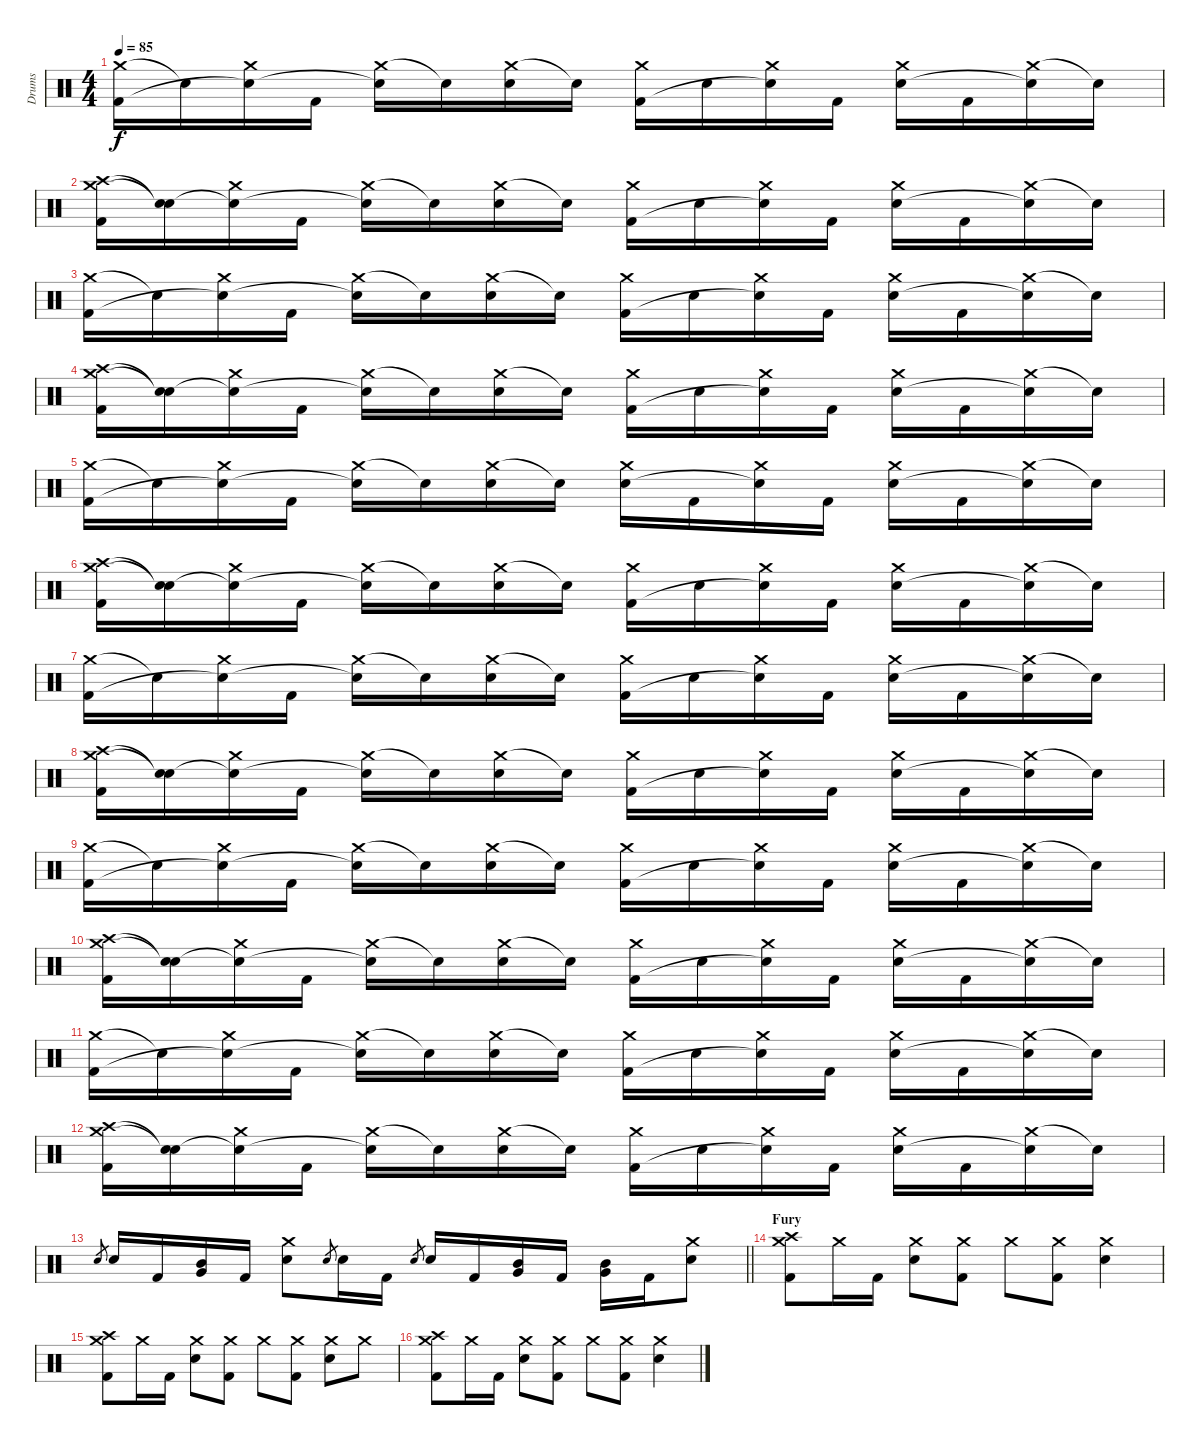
\track ("Drums" "Drums") {instrument percussion}
\staff {score}
\articulation defaults
\ts (4 4)
\tempo 85
\clef neutral
\ks c
("Crash medium (hit)" "Kick (hit) 2").16{dy f} "Snare (hit)"{t}.16 ("Crash medium (hit)" "Snare (hit)"{t}).16 "Kick (hit) 2".16 ("Crash medium (hit)" "Snare (hit)"{t}).16 "Snare (hit)"{t}.16 ("Crash medium (hit)" "Snare (hit) 2").16 "Snare (hit)"{t}.16 ("Crash medium (hit)" "Kick (hit) 2").16 "Snare (hit) 2".16 ("Crash medium (hit)" "Snare (hit)"{t}).16 "Kick (hit) 2".16 ("Crash medium (hit)" "Snare (hit) 2").16 "Kick (hit) 2".16 ("Crash medium (hit)" "Snare (hit)"{t}).16 "Snare (hit)"{t}.16 |
("Crash high (hit)" "Crash medium (hit)" "Kick (hit) 2").16 ("Snare (hit)"{t} "Snare (hit)"{t}).16 ("Crash medium (hit)" "Snare (hit)"{t}).16 "Kick (hit) 2".16 ("Crash medium (hit)" "Snare (hit)"{t}).16 "Snare (hit)"{t}.16 ("Crash medium (hit)" "Snare (hit) 2").16 "Snare (hit)"{t}.16 ("Crash medium (hit)" "Kick (hit) 2").16 "Snare (hit) 2".16 ("Crash medium (hit)" "Snare (hit)"{t}).16 "Kick (hit) 2".16 ("Crash medium (hit)" "Snare (hit) 2").16 "Kick (hit) 2".16 ("Crash medium (hit)" "Snare (hit)"{t}).16 "Snare (hit)"{t}.16 |
("Crash medium (hit)" "Kick (hit) 2").16 "Snare (hit)"{t}.16 ("Crash medium (hit)" "Snare (hit)"{t}).16 "Kick (hit) 2".16 ("Crash medium (hit)" "Snare (hit)"{t}).16 "Snare (hit)"{t}.16 ("Crash medium (hit)" "Snare (hit) 2").16 "Snare (hit)"{t}.16 ("Crash medium (hit)" "Kick (hit) 2").16 "Snare (hit) 2".16 ("Crash medium (hit)" "Snare (hit)"{t}).16 "Kick (hit) 2".16 ("Crash medium (hit)" "Snare (hit) 2").16 "Kick (hit) 2".16 ("Crash medium (hit)" "Snare (hit)"{t}).16 "Snare (hit)"{t}.16 |
("Crash high (hit)" "Crash medium (hit)" "Kick (hit) 2").16 ("Snare (hit)"{t} "Snare (hit)"{t}).16 ("Crash medium (hit)" "Snare (hit)"{t}).16 "Kick (hit) 2".16 ("Crash medium (hit)" "Snare (hit)"{t}).16 "Snare (hit)"{t}.16 ("Crash medium (hit)" "Snare (hit) 2").16 "Snare (hit)"{t}.16 ("Crash medium (hit)" "Kick (hit) 2").16 "Snare (hit) 2".16 ("Crash medium (hit)" "Snare (hit)"{t}).16 "Kick (hit) 2".16 ("Crash medium (hit)" "Snare (hit) 2").16 "Kick (hit) 2".16 ("Crash medium (hit)" "Snare (hit)"{t}).16 "Snare (hit)"{t}.16 |
("Crash medium (hit)" "Kick (hit) 2").16 "Snare (hit)"{t}.16 ("Crash medium (hit)" "Snare (hit)"{t}).16 "Kick (hit) 2".16 ("Crash medium (hit)" "Snare (hit)"{t}).16 "Snare (hit)"{t}.16 ("Crash medium (hit)" "Snare (hit) 2").16 "Snare (hit)"{t}.16 ("Crash medium (hit)" "Snare (hit) 2").16 "Kick (hit) 2".16 ("Crash medium (hit)" "Snare (hit)"{t}).16 "Kick (hit) 2".16 ("Crash medium (hit)" "Snare (hit) 2").16 "Kick (hit) 2".16 ("Crash medium (hit)" "Snare (hit)"{t}).16 "Snare (hit)"{t}.16 |
("Crash high (hit)" "Crash medium (hit)" "Kick (hit) 2").16 ("Snare (hit)"{t} "Snare (hit)"{t}).16 ("Crash medium (hit)" "Snare (hit)"{t}).16 "Kick (hit) 2".16 ("Crash medium (hit)" "Snare (hit)"{t}).16 "Snare (hit)"{t}.16 ("Crash medium (hit)" "Snare (hit) 2").16 "Snare (hit)"{t}.16 ("Crash medium (hit)" "Kick (hit) 2").16 "Snare (hit) 2".16 ("Crash medium (hit)" "Snare (hit)"{t}).16 "Kick (hit) 2".16 ("Crash medium (hit)" "Snare (hit) 2").16 "Kick (hit) 2".16 ("Crash medium (hit)" "Snare (hit)"{t}).16 "Snare (hit)"{t}.16 |
("Crash medium (hit)" "Kick (hit) 2").16 "Snare (hit)"{t}.16 ("Crash medium (hit)" "Snare (hit)"{t}).16 "Kick (hit) 2".16 ("Crash medium (hit)" "Snare (hit)"{t}).16 "Snare (hit)"{t}.16 ("Crash medium (hit)" "Snare (hit) 2").16 "Snare (hit)"{t}.16 ("Crash medium (hit)" "Kick (hit) 2").16 "Snare (hit) 2".16 ("Crash medium (hit)" "Snare (hit)"{t}).16 "Kick (hit) 2".16 ("Crash medium (hit)" "Snare (hit) 2").16 "Kick (hit) 2".16 ("Crash medium (hit)" "Snare (hit)"{t}).16 "Snare (hit)"{t}.16 |
("Crash high (hit)" "Crash medium (hit)" "Kick (hit) 2").16 ("Snare (hit)"{t} "Snare (hit)"{t}).16 ("Crash medium (hit)" "Snare (hit)"{t}).16 "Kick (hit) 2".16 ("Crash medium (hit)" "Snare (hit)"{t}).16 "Snare (hit)"{t}.16 ("Crash medium (hit)" "Snare (hit) 2").16 "Snare (hit)"{t}.16 ("Crash medium (hit)" "Kick (hit) 2").16 "Snare (hit) 2".16 ("Crash medium (hit)" "Snare (hit)"{t}).16 "Kick (hit) 2".16 ("Crash medium (hit)" "Snare (hit) 2").16 "Kick (hit) 2".16 ("Crash medium (hit)" "Snare (hit)"{t}).16 "Snare (hit)"{t}.16 |
("Crash medium (hit)" "Kick (hit) 2").16 "Snare (hit)"{t}.16 ("Crash medium (hit)" "Snare (hit)"{t}).16 "Kick (hit) 2".16 ("Crash medium (hit)" "Snare (hit)"{t}).16 "Snare (hit)"{t}.16 ("Crash medium (hit)" "Snare (hit) 2").16 "Snare (hit)"{t}.16 ("Crash medium (hit)" "Kick (hit) 2").16 "Snare (hit) 2".16 ("Crash medium (hit)" "Snare (hit)"{t}).16 "Kick (hit) 2".16 ("Crash medium (hit)" "Snare (hit) 2").16 "Kick (hit) 2".16 ("Crash medium (hit)" "Snare (hit)"{t}).16 "Snare (hit)"{t}.16 |
("Crash high (hit)" "Crash medium (hit)" "Kick (hit) 2").16 ("Snare (hit)"{t} "Snare (hit)"{t}).16 ("Crash medium (hit)" "Snare (hit)"{t}).16 "Kick (hit) 2".16 ("Crash medium (hit)" "Snare (hit)"{t}).16 "Snare (hit)"{t}.16 ("Crash medium (hit)" "Snare (hit) 2").16 "Snare (hit)"{t}.16 ("Crash medium (hit)" "Kick (hit) 2").16 "Snare (hit) 2".16 ("Crash medium (hit)" "Snare (hit)"{t}).16 "Kick (hit) 2".16 ("Crash medium (hit)" "Snare (hit) 2").16 "Kick (hit) 2".16 ("Crash medium (hit)" "Snare (hit)"{t}).16 "Snare (hit)"{t}.16 |
("Crash medium (hit)" "Kick (hit) 2").16 "Snare (hit)"{t}.16 ("Crash medium (hit)" "Snare (hit)"{t}).16 "Kick (hit) 2".16 ("Crash medium (hit)" "Snare (hit)"{t}).16 "Snare (hit)"{t}.16 ("Crash medium (hit)" "Snare (hit) 2").16 "Snare (hit)"{t}.16 ("Crash medium (hit)" "Kick (hit) 2").16 "Snare (hit) 2".16 ("Crash medium (hit)" "Snare (hit)"{t}).16 "Kick (hit) 2".16 ("Crash medium (hit)" "Snare (hit) 2").16 "Kick (hit) 2".16 ("Crash medium (hit)" "Snare (hit)"{t}).16 "Snare (hit)"{t}.16 |
("Crash high (hit)" "Crash medium (hit)" "Kick (hit) 2").16 ("Snare (hit)"{t} "Snare (hit)"{t}).16 ("Crash medium (hit)" "Snare (hit)"{t}).16 "Kick (hit) 2".16 ("Crash medium (hit)" "Snare (hit)"{t}).16 "Snare (hit)"{t}.16 ("Crash medium (hit)" "Snare (hit) 2").16 "Snare (hit)"{t}.16 ("Crash medium (hit)" "Kick (hit) 2").16 "Snare (hit) 2".16 ("Crash medium (hit)" "Snare (hit)"{t}).16 "Kick (hit) 2".16 ("Crash medium (hit)" "Snare (hit) 2").16 "Kick (hit) 2".16 ("Crash medium (hit)" "Snare (hit)"{t}).16 "Snare (hit)"{t}.16 |
\barLineRight lightlight "Snare (hit) 2".8{gr} "Snare (hit) 2".16 "Kick (hit) 2".16
("Mid Tom (hit)" "Very Low Tom (hit)").16 "Kick (hit) 2".16 ("Crash medium (hit)" "Snare (hit) 2").8 "Snare (hit) 2".8{gr} "Snare (hit) 2".16 "Kick (hit) 2".16 "Snare (hit) 2".8{gr} "Snare (hit) 2".16 "Kick (hit) 2".16 ("Mid Tom (hit)" "Very Low Tom (hit)").16 "Kick (hit) 2".16 ("Mid Tom (hit)" "Very Low Tom (hit)").16 "Kick (hit) 2".16 ("Crash medium (hit)" "Snare (hit) 2").8 |
\section ("" "Fury")
("Crash medium (hit)" "Crash high (hit)" "Kick (hit) 2").8 "Crash medium (hit)".16 "Kick (hit) 2".16 ("Crash medium (hit)" "Snare (hit) 2").8 ("Crash medium (hit)" "Kick (hit) 2").8 "Crash medium (hit)".8 ("Crash medium (hit)" "Kick (hit) 2").8 ("Crash medium (hit)" "Snare (hit) 2").4 |
("Crash medium (hit)" "Crash high (hit)" "Kick (hit) 2").8 "Crash medium (hit)".16 "Kick (hit) 2".16 ("Crash medium (hit)" "Snare (hit) 2").8 ("Crash medium (hit)" "Kick (hit) 2").8 "Crash medium (hit)".8 ("Crash medium (hit)" "Kick (hit) 2").8 ("Crash medium (hit)" "Snare (hit) 2").8 "Crash medium (hit)".8 |
("Crash medium (hit)" "Crash high (hit)" "Kick (hit) 2").8 "Crash medium (hit)".16 "Kick (hit) 2".16 ("Crash medium (hit)" "Snare (hit) 2").8 ("Crash medium (hit)" "Kick (hit) 2").8 "Crash medium (hit)".8 ("Crash medium (hit)" "Kick (hit) 2").8 ("Crash medium (hit)" "Snare (hit) 2").4
